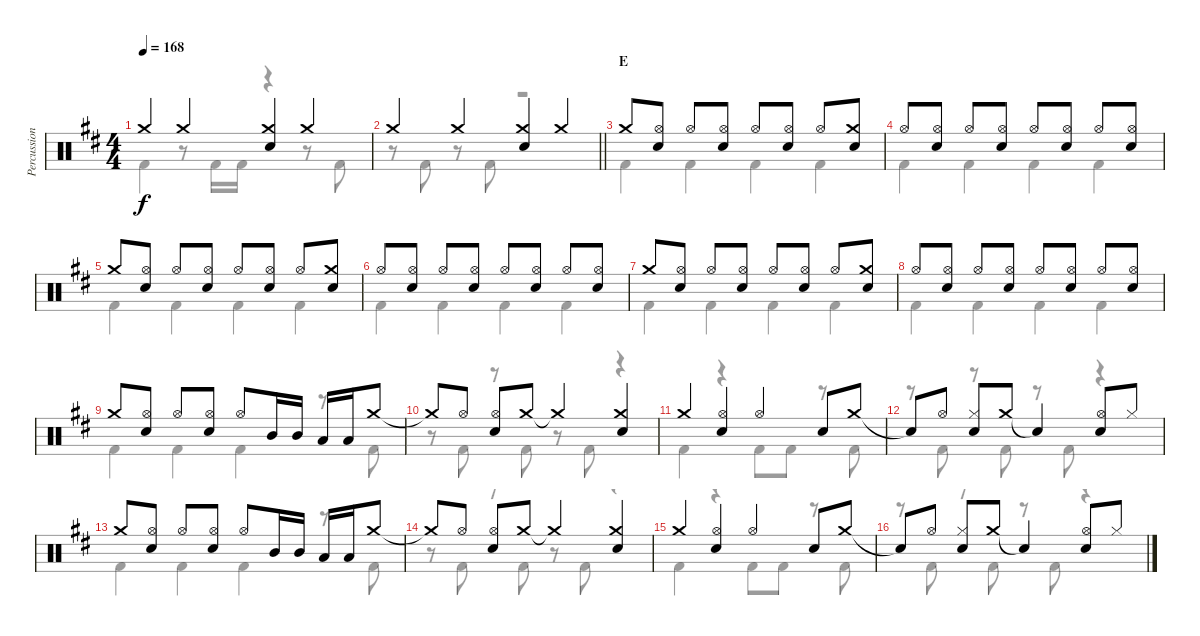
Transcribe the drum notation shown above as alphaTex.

\track ("Percussion" "Percussion") {instrument percussion}
\staff {score}
\articulation defaults
\voice
\ts (4 4)
\tempo 168
\clef neutral
\ks d "Crash medium (hit)".4{dy f} "Crash medium (hit)".4
("Crash medium (hit)" "Snare (hit) 2").4 "Crash medium (hit)".4 |
\barLineRight lightlight "Crash medium (hit)".4 "Crash medium (hit)".4
("Crash medium (hit)" "Snare (hit) 2").4 "Crash medium (hit)".4 |
\section ("" "E")
"Crash medium (hit)".8 ("Hi-Hat (open)" "Snare (hit) 2").8 "Hi-Hat (open)".8 ("Hi-Hat (open)" "Snare (hit) 2").8 "Hi-Hat (open)".8 ("Hi-Hat (open)" "Snare (hit) 2").8 "Hi-Hat (open)".8 ("Crash medium (hit)" "Snare (hit) 2").8 |
"Hi-Hat (open)".8 ("Hi-Hat (open)" "Snare (hit) 2").8 "Hi-Hat (open)".8 ("Hi-Hat (open)" "Snare (hit) 2").8 "Hi-Hat (open)".8 ("Hi-Hat (open)" "Snare (hit) 2").8 "Hi-Hat (open)".8 ("Hi-Hat (open)" "Snare (hit) 2").8 |
"Crash medium (hit)".8 ("Hi-Hat (open)" "Snare (hit) 2").8 "Hi-Hat (open)".8 ("Hi-Hat (open)" "Snare (hit) 2").8 "Hi-Hat (open)".8 ("Hi-Hat (open)" "Snare (hit) 2").8 "Hi-Hat (open)".8 ("Crash medium (hit)" "Snare (hit) 2").8 |
"Hi-Hat (open)".8 ("Hi-Hat (open)" "Snare (hit) 2").8 "Hi-Hat (open)".8 ("Hi-Hat (open)" "Snare (hit) 2").8 "Hi-Hat (open)".8 ("Hi-Hat (open)" "Snare (hit) 2").8 "Hi-Hat (open)".8 ("Hi-Hat (open)" "Snare (hit) 2").8 |
"Crash medium (hit)".8 ("Hi-Hat (open)" "Snare (hit) 2").8 "Hi-Hat (open)".8 ("Hi-Hat (open)" "Snare (hit) 2").8 "Hi-Hat (open)".8 ("Hi-Hat (open)" "Snare (hit) 2").8 "Hi-Hat (open)".8 ("Crash medium (hit)" "Snare (hit) 2").8 |
"Hi-Hat (open)".8 ("Hi-Hat (open)" "Snare (hit) 2").8 "Hi-Hat (open)".8 ("Hi-Hat (open)" "Snare (hit) 2").8 "Hi-Hat (open)".8 ("Hi-Hat (open)" "Snare (hit) 2").8 "Hi-Hat (open)".8 ("Hi-Hat (open)" "Snare (hit) 2").8 |
"Crash medium (hit)".8 ("Hi-Hat (open)" "Snare (hit) 2").8 "Hi-Hat (open)".8 ("Hi-Hat (open)" "Snare (hit) 2").8 "Hi-Hat (open)".8 "Mid Tom (hit)".16 "Mid Tom (hit)".16 "Low Tom (hit)".16 "Low Tom (hit)".16 "Crash medium (hit)".8 |
"Crash medium (hit)"{t}.8 "Hi-Hat (open)".8 ("Hi-Hat (open)" "Snare (hit) 2").8 "Crash medium (hit)".8 "Crash medium (hit)"{t}.4 ("Crash medium (hit)" "Snare (hit) 2").4 |
"Crash medium (hit)".4 ("Hi-Hat (open)" "Snare (hit) 2").4 "Hi-Hat (open)".4 "Snare (hit) 2".8 "Crash medium (hit)".8 |
"Snare (hit)"{t}.8 "Hi-Hat (open)".8 ("Hi-Hat (closed)" "Snare (hit) 2").8 "Crash medium (hit)".8 "Snare (hit)"{t}.4 ("Hi-Hat (open)" "Snare (hit) 2").8 "Hi-Hat (closed)".8 |
"Crash medium (hit)".8 ("Hi-Hat (open)" "Snare (hit) 2").8 "Hi-Hat (open)".8 ("Hi-Hat (open)" "Snare (hit) 2").8 "Hi-Hat (open)".8 "Mid Tom (hit)".16 "Mid Tom (hit)".16 "Low Tom (hit)".16 "Low Tom (hit)".16 "Crash medium (hit)".8 |
"Crash medium (hit)"{t}.8 "Hi-Hat (open)".8 ("Hi-Hat (open)" "Snare (hit) 2").8 "Crash medium (hit)".8 "Crash medium (hit)"{t}.4 ("Crash medium (hit)" "Snare (hit) 2").4 |
"Crash medium (hit)".4 ("Hi-Hat (open)" "Snare (hit) 2").4 "Hi-Hat (open)".4 "Snare (hit) 2".8 "Crash medium (hit)".8 |
"Snare (hit)"{t}.8 "Hi-Hat (open)".8 ("Hi-Hat (closed)" "Snare (hit) 2").8 "Crash medium (hit)".8 "Snare (hit)"{t}.4 ("Hi-Hat (open)" "Snare (hit) 2").8 "Hi-Hat (closed)".8
\voice
\clef neutral
\ottava regular
\simile none
\ks d "Kick (hit) 2".4{dy f}
r.8 "Kick (hit) 2".16 "Kick (hit) 2".16 r.4 r.8 "Kick (hit) 2".8 |
\barLineRight lightlight
r.8 "Kick (hit) 2".8 r.8 "Kick (hit) 2".8 r.2 |
"Kick (hit) 2".4 "Kick (hit) 2".4 "Kick (hit) 2".4 "Kick (hit) 2".4 |
"Kick (hit) 2".4 "Kick (hit) 2".4 "Kick (hit) 2".4 "Kick (hit) 2".4 |
"Kick (hit) 2".4 "Kick (hit) 2".4 "Kick (hit) 2".4 "Kick (hit) 2".4 |
"Kick (hit) 2".4 "Kick (hit) 2".4 "Kick (hit) 2".4 "Kick (hit) 2".4 |
"Kick (hit) 2".4 "Kick (hit) 2".4 "Kick (hit) 2".4 "Kick (hit) 2".4 |
"Kick (hit) 2".4 "Kick (hit) 2".4 "Kick (hit) 2".4 "Kick (hit) 2".4 |
"Kick (hit) 2".4 "Kick (hit) 2".4 "Kick (hit) 2".4 r.8 "Kick (hit) 2".8 |
r.8 "Kick (hit) 2".8 r.8 "Kick (hit) 2".8 r.8 "Kick (hit) 2".8 r.4 |
"Kick (hit) 2".4 r.4 "Kick (hit) 2".8 "Kick (hit) 2".8 r.8 "Kick (hit) 2".8 |
r.8 "Kick (hit) 2".8 r.8 "Kick (hit) 2".8 r.8 "Kick (hit) 2".8 r.4 |
"Kick (hit) 2".4 "Kick (hit) 2".4 "Kick (hit) 2".4 r.8 "Kick (hit) 2".8 |
r.8 "Kick (hit) 2".8 r.8 "Kick (hit) 2".8 r.8 "Kick (hit) 2".8 r.4 |
"Kick (hit) 2".4 r.4 "Kick (hit) 2".8 "Kick (hit) 2".8 r.8 "Kick (hit) 2".8 |
r.8 "Kick (hit) 2".8 r.8 "Kick (hit) 2".8 r.8 "Kick (hit) 2".8 r.4
